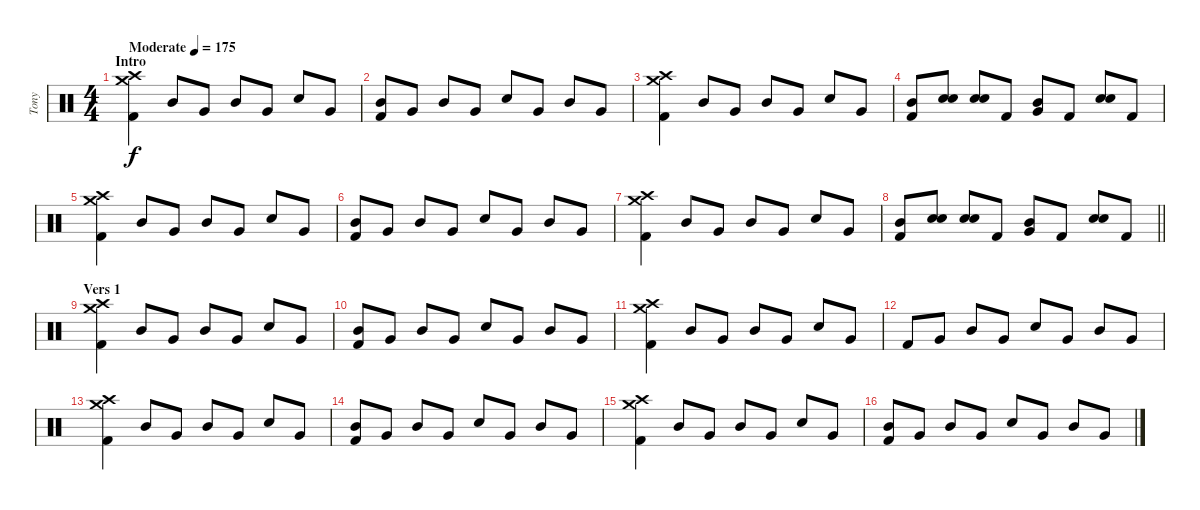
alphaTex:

\track ("Tony" "Tony") {instrument percussion}
\staff {score}
\articulation defaults
\ts (4 4)
\section ("" "Intro")
\tempo (175 "Moderate")
\clef neutral
\ks c
("Crash high (hit)" "Crash medium (hit)" "Kick (hit) 2").4{dy f} "Mid Tom (hit)".8 "Very Low Tom (hit)".8 "Mid Tom (hit)".8 "Very Low Tom (hit)".8 "Snare (hit) 2".8 "Very Low Tom (hit)".8 |
("Mid Tom (hit)" "Kick (hit) 2").8 "Very Low Tom (hit)".8 "Mid Tom (hit)".8 "Very Low Tom (hit)".8 "Snare (hit) 2".8 "Very Low Tom (hit)".8 "Mid Tom (hit)".8 "Very Low Tom (hit)".8 |
("Crash high (hit)" "Crash medium (hit)" "Kick (hit) 2").4 "Mid Tom (hit)".8 "Very Low Tom (hit)".8 "Mid Tom (hit)".8 "Very Low Tom (hit)".8 "Snare (hit) 2".8 "Very Low Tom (hit)".8 |
("Mid Tom (hit)" "Kick (hit) 2").8 ("Snare (hit) 2" "Snare (hit) 2").8 ("Snare (hit) 2" "Snare (hit) 2").8 "Kick (hit) 2".8 ("Mid Tom (hit)" "Very Low Tom (hit)").8 "Kick (hit) 2".8 ("Snare (hit) 2" "Snare (hit) 2").8 "Kick (hit) 2".8 |
("Crash high (hit)" "Crash medium (hit)" "Kick (hit) 2").4 "Mid Tom (hit)".8 "Very Low Tom (hit)".8 "Mid Tom (hit)".8 "Very Low Tom (hit)".8 "Snare (hit) 2".8 "Very Low Tom (hit)".8 |
("Mid Tom (hit)" "Kick (hit) 2").8 "Very Low Tom (hit)".8 "Mid Tom (hit)".8 "Very Low Tom (hit)".8 "Snare (hit) 2".8 "Very Low Tom (hit)".8 "Mid Tom (hit)".8 "Very Low Tom (hit)".8 |
("Crash high (hit)" "Crash medium (hit)" "Kick (hit) 2").4 "Mid Tom (hit)".8 "Very Low Tom (hit)".8 "Mid Tom (hit)".8 "Very Low Tom (hit)".8 "Snare (hit) 2".8 "Very Low Tom (hit)".8 |
\barLineRight lightlight
("Mid Tom (hit)" "Kick (hit) 2").8 ("Snare (hit) 2" "Snare (hit) 2").8 ("Snare (hit) 2" "Snare (hit) 2").8 "Kick (hit) 2".8 ("Mid Tom (hit)" "Very Low Tom (hit)").8 "Kick (hit) 2".8 ("Snare (hit) 2" "Snare (hit) 2").8 "Kick (hit) 2".8 |
\section ("" "Vers 1")
("Crash high (hit)" "Crash medium (hit)" "Kick (hit) 2").4 "Mid Tom (hit)".8 "Very Low Tom (hit)".8 "Mid Tom (hit)".8 "Very Low Tom (hit)".8 "Snare (hit) 2".8 "Very Low Tom (hit)".8 |
("Mid Tom (hit)" "Kick (hit) 2").8 "Very Low Tom (hit)".8 "Mid Tom (hit)".8 "Very Low Tom (hit)".8 "Snare (hit) 2".8 "Very Low Tom (hit)".8 "Mid Tom (hit)".8 "Very Low Tom (hit)".8 |
("Crash high (hit)" "Crash medium (hit)" "Kick (hit) 2").4 "Mid Tom (hit)".8 "Very Low Tom (hit)".8 "Mid Tom (hit)".8 "Very Low Tom (hit)".8 "Snare (hit) 2".8 "Very Low Tom (hit)".8 |
"Kick (hit) 2".8 "Very Low Tom (hit)".8 "Mid Tom (hit)".8 "Very Low Tom (hit)".8 "Snare (hit) 2".8 "Very Low Tom (hit)".8 "Mid Tom (hit)".8 "Very Low Tom (hit)".8 |
("Crash high (hit)" "Crash medium (hit)" "Kick (hit) 2").4 "Mid Tom (hit)".8 "Very Low Tom (hit)".8 "Mid Tom (hit)".8 "Very Low Tom (hit)".8 "Snare (hit) 2".8 "Very Low Tom (hit)".8 |
("Mid Tom (hit)" "Kick (hit) 2").8 "Very Low Tom (hit)".8 "Mid Tom (hit)".8 "Very Low Tom (hit)".8 "Snare (hit) 2".8 "Very Low Tom (hit)".8 "Mid Tom (hit)".8 "Very Low Tom (hit)".8 |
("Crash high (hit)" "Crash medium (hit)" "Kick (hit) 2").4 "Mid Tom (hit)".8 "Very Low Tom (hit)".8 "Mid Tom (hit)".8 "Very Low Tom (hit)".8 "Snare (hit) 2".8 "Very Low Tom (hit)".8 |
("Mid Tom (hit)" "Kick (hit) 2").8 "Very Low Tom (hit)".8 "Mid Tom (hit)".8 "Very Low Tom (hit)".8 "Snare (hit) 2".8 "Very Low Tom (hit)".8 "Mid Tom (hit)".8 "Very Low Tom (hit)".8
